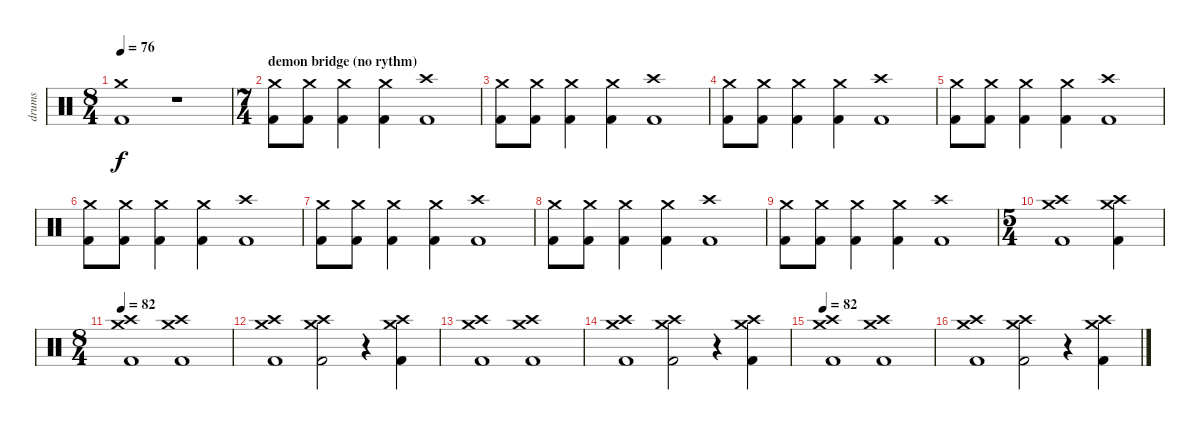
\track ("drums" "drums") {instrument percussion}
\staff {score}
\articulation defaults
\ts (8 4)
\tempo 76
\clef neutral
\ks c
("Crash medium (hit)" "Kick (hit) 2").1{dy f} r.1 |
\ts (7 4)
\section ("" "demon bridge (no rythm)")
("Kick (hit) 2" "Crash medium (hit)").8 ("Kick (hit) 2" "Crash medium (hit)").8 ("Kick (hit) 2" "Crash medium (hit)").4 ("Kick (hit) 2" "Crash medium (hit)").4 ("Kick (hit) 2" "Crash high (hit)").1 |
("Kick (hit) 2" "Crash medium (hit)").8 ("Kick (hit) 2" "Crash medium (hit)").8 ("Kick (hit) 2" "Crash medium (hit)").4 ("Kick (hit) 2" "Crash medium (hit)").4 ("Kick (hit) 2" "Crash high (hit)").1 |
("Kick (hit) 2" "Crash medium (hit)").8 ("Kick (hit) 2" "Crash medium (hit)").8 ("Kick (hit) 2" "Crash medium (hit)").4 ("Kick (hit) 2" "Crash medium (hit)").4 ("Kick (hit) 2" "Crash high (hit)").1 |
("Kick (hit) 2" "Crash medium (hit)").8 ("Kick (hit) 2" "Crash medium (hit)").8 ("Kick (hit) 2" "Crash medium (hit)").4 ("Kick (hit) 2" "Crash medium (hit)").4 ("Kick (hit) 2" "Crash high (hit)").1 |
("Kick (hit) 2" "Crash medium (hit)").8 ("Kick (hit) 2" "Crash medium (hit)").8 ("Kick (hit) 2" "Crash medium (hit)").4 ("Kick (hit) 2" "Crash medium (hit)").4 ("Kick (hit) 2" "Crash high (hit)").1 |
("Kick (hit) 2" "Crash medium (hit)").8 ("Kick (hit) 2" "Crash medium (hit)").8 ("Kick (hit) 2" "Crash medium (hit)").4 ("Kick (hit) 2" "Crash medium (hit)").4 ("Kick (hit) 2" "Crash high (hit)").1 |
("Kick (hit) 2" "Crash medium (hit)").8 ("Kick (hit) 2" "Crash medium (hit)").8 ("Kick (hit) 2" "Crash medium (hit)").4 ("Kick (hit) 2" "Crash medium (hit)").4 ("Kick (hit) 2" "Crash high (hit)").1 |
("Kick (hit) 2" "Crash medium (hit)").8 ("Kick (hit) 2" "Crash medium (hit)").8 ("Kick (hit) 2" "Crash medium (hit)").4 ("Kick (hit) 2" "Crash medium (hit)").4 ("Kick (hit) 2" "Crash high (hit)").1 |
\ts (5 4)
("Kick (hit) 2" "Crash medium (hit)" "Crash high (hit)").1 ("Kick (hit) 2" "Crash medium (hit)" "Crash high (hit)").4 |
\ts (8 4)
\tempo 82
("Kick (hit) 2" "Crash medium (hit)" "Crash high (hit)").1 ("Kick (hit) 2" "Crash medium (hit)" "Crash high (hit)").1 |
("Kick (hit) 2" "Crash medium (hit)" "Crash high (hit)").1 ("Kick (hit) 2" "Crash medium (hit)" "Crash high (hit)").2 r.4 ("Kick (hit) 2" "Crash medium (hit)" "Crash high (hit)").4 |
("Kick (hit) 2" "Crash medium (hit)" "Crash high (hit)").1 ("Kick (hit) 2" "Crash medium (hit)" "Crash high (hit)").1 |
("Kick (hit) 2" "Crash medium (hit)" "Crash high (hit)").1 ("Kick (hit) 2" "Crash medium (hit)" "Crash high (hit)").2 r.4 ("Kick (hit) 2" "Crash medium (hit)" "Crash high (hit)").4 |
\tempo 82
("Kick (hit) 2" "Crash medium (hit)" "Crash high (hit)").1 ("Kick (hit) 2" "Crash medium (hit)" "Crash high (hit)").1 |
("Kick (hit) 2" "Crash medium (hit)" "Crash high (hit)").1 ("Kick (hit) 2" "Crash medium (hit)" "Crash high (hit)").2 r.4 ("Kick (hit) 2" "Crash medium (hit)" "Crash high (hit)").4
